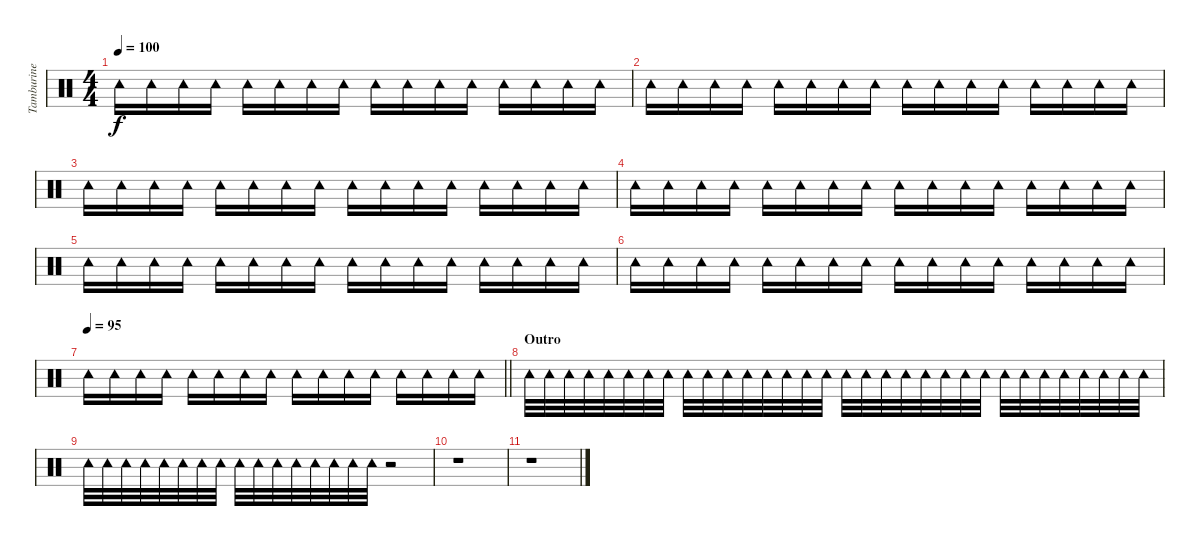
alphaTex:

\track ("Tamburine" "Tamburine") {instrument percussion}
\staff {score}
\articulation defaults
\ts (4 4)
\tempo 100
\clef neutral
\ks c "Tambourine (hit)".16{dy f} "Tambourine (hit)".16 "Tambourine (hit)".16 "Tambourine (hit)".16 "Tambourine (hit)".16 "Tambourine (hit)".16 "Tambourine (hit)".16 "Tambourine (hit)".16 "Tambourine (hit)".16 "Tambourine (hit)".16 "Tambourine (hit)".16 "Tambourine (hit)".16 "Tambourine (hit)".16 "Tambourine (hit)".16 "Tambourine (hit)".16 "Tambourine (hit)".16
|
"Tambourine (hit)".16 "Tambourine (hit)".16 "Tambourine (hit)".16 "Tambourine (hit)".16 "Tambourine (hit)".16 "Tambourine (hit)".16 "Tambourine (hit)".16 "Tambourine (hit)".16 "Tambourine (hit)".16 "Tambourine (hit)".16 "Tambourine (hit)".16 "Tambourine (hit)".16 "Tambourine (hit)".16 "Tambourine (hit)".16 "Tambourine (hit)".16 "Tambourine (hit)".16 |
"Tambourine (hit)".16 "Tambourine (hit)".16 "Tambourine (hit)".16 "Tambourine (hit)".16 "Tambourine (hit)".16 "Tambourine (hit)".16 "Tambourine (hit)".16 "Tambourine (hit)".16 "Tambourine (hit)".16 "Tambourine (hit)".16 "Tambourine (hit)".16 "Tambourine (hit)".16 "Tambourine (hit)".16 "Tambourine (hit)".16 "Tambourine (hit)".16 "Tambourine (hit)".16 |
"Tambourine (hit)".16 "Tambourine (hit)".16 "Tambourine (hit)".16 "Tambourine (hit)".16 "Tambourine (hit)".16 "Tambourine (hit)".16 "Tambourine (hit)".16 "Tambourine (hit)".16 "Tambourine (hit)".16 "Tambourine (hit)".16 "Tambourine (hit)".16 "Tambourine (hit)".16 "Tambourine (hit)".16 "Tambourine (hit)".16 "Tambourine (hit)".16 "Tambourine (hit)".16 |
"Tambourine (hit)".16 "Tambourine (hit)".16 "Tambourine (hit)".16 "Tambourine (hit)".16 "Tambourine (hit)".16 "Tambourine (hit)".16 "Tambourine (hit)".16 "Tambourine (hit)".16 "Tambourine (hit)".16 "Tambourine (hit)".16 "Tambourine (hit)".16 "Tambourine (hit)".16 "Tambourine (hit)".16 "Tambourine (hit)".16 "Tambourine (hit)".16 "Tambourine (hit)".16 |
"Tambourine (hit)".16 "Tambourine (hit)".16 "Tambourine (hit)".16 "Tambourine (hit)".16 "Tambourine (hit)".16 "Tambourine (hit)".16 "Tambourine (hit)".16 "Tambourine (hit)".16 "Tambourine (hit)".16 "Tambourine (hit)".16 "Tambourine (hit)".16 "Tambourine (hit)".16 "Tambourine (hit)".16 "Tambourine (hit)".16 "Tambourine (hit)".16 "Tambourine (hit)".16 |
\tempo 95
\barLineRight lightlight "Tambourine (hit)".16 "Tambourine (hit)".16 "Tambourine (hit)".16 "Tambourine (hit)".16 "Tambourine (hit)".16 "Tambourine (hit)".16 "Tambourine (hit)".16 "Tambourine (hit)".16 "Tambourine (hit)".16 "Tambourine (hit)".16 "Tambourine (hit)".16 "Tambourine (hit)".16 "Tambourine (hit)".16 "Tambourine (hit)".16 "Tambourine (hit)".16 "Tambourine (hit)".16
|
\section ("" "Outro")
"Tambourine (hit)".32 "Tambourine (hit)".32 "Tambourine (hit)".32 "Tambourine (hit)".32 "Tambourine (hit)".32 "Tambourine (hit)".32 "Tambourine (hit)".32 "Tambourine (hit)".32 "Tambourine (hit)".32 "Tambourine (hit)".32 "Tambourine (hit)".32 "Tambourine (hit)".32 "Tambourine (hit)".32 "Tambourine (hit)".32 "Tambourine (hit)".32 "Tambourine (hit)".32 "Tambourine (hit)".32 "Tambourine (hit)".32 "Tambourine (hit)".32 "Tambourine (hit)".32 "Tambourine (hit)".32 "Tambourine (hit)".32 "Tambourine (hit)".32 "Tambourine (hit)".32 "Tambourine (hit)".32 "Tambourine (hit)".32 "Tambourine (hit)".32 "Tambourine (hit)".32 "Tambourine (hit)".32 "Tambourine (hit)".32 "Tambourine (hit)".32 "Tambourine (hit)".32 |
"Tambourine (hit)".32 "Tambourine (hit)".32 "Tambourine (hit)".32 "Tambourine (hit)".32 "Tambourine (hit)".32 "Tambourine (hit)".32 "Tambourine (hit)".32 "Tambourine (hit)".32 "Tambourine (hit)".32 "Tambourine (hit)".32 "Tambourine (hit)".32 "Tambourine (hit)".32 "Tambourine (hit)".32 "Tambourine (hit)".32 "Tambourine (hit)".32 "Tambourine (hit)".32 r.2 |
r.1 |
r.1
